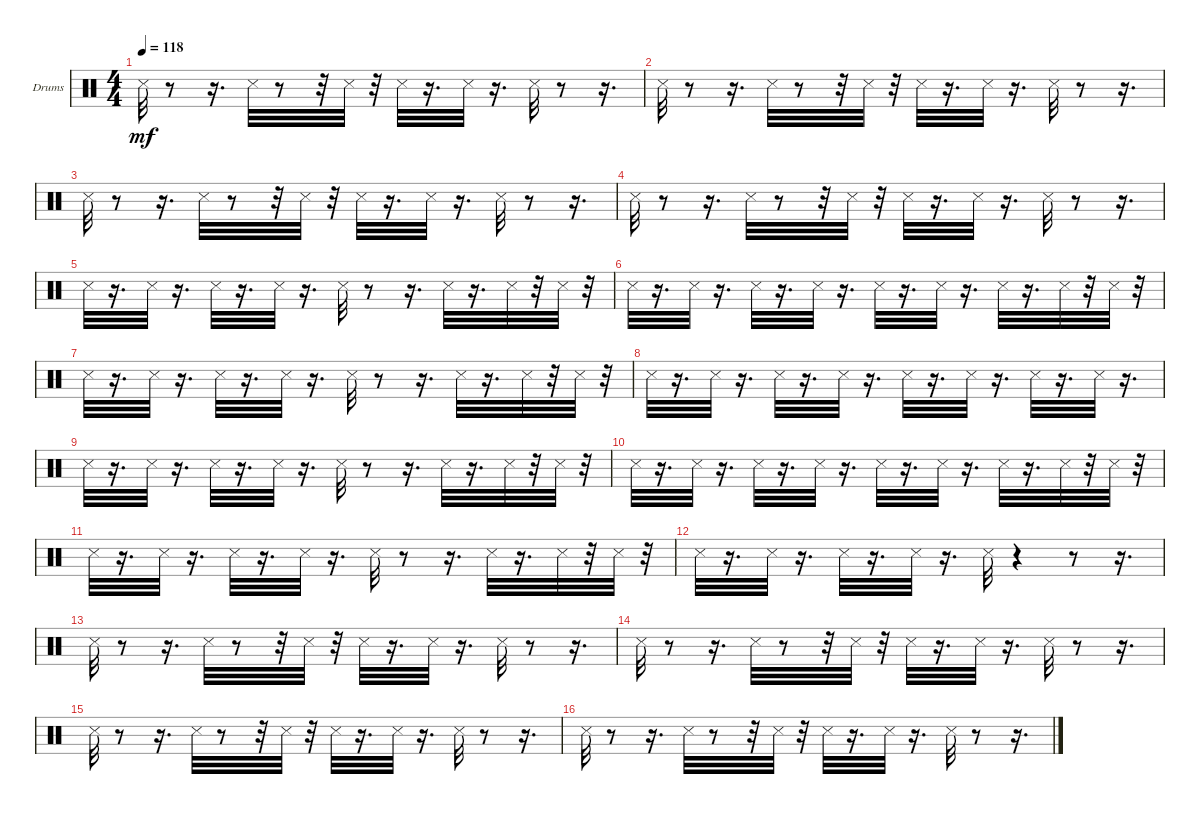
\bracketExtendMode groupsimilarinstruments
\firstSystemTrackNameOrientation horizontal
\otherSystemsTrackNameOrientation horizontal
\track ("Drums" "Drums") {instrument percussion}
\staff {score}
\articulation defaults
\ts (4 4)
\tempo 118
\clef neutral
\ks c "Snare (side stick) 3".32{dy mf}
r.8 r.16{d} "Snare (side stick) 3".32 r.8 r.32 "Snare (side stick) 3".32 r.32 "Snare (side stick) 3".32 r.16{d} "Snare (side stick) 3".32 r.16{d} "Snare (side stick) 3".32 r.8 r.16{d} |
"Snare (side stick) 3".32 r.8 r.16{d} "Snare (side stick) 3".32 r.8 r.32 "Snare (side stick) 3".32 r.32 "Snare (side stick) 3".32 r.16{d} "Snare (side stick) 3".32 r.16{d} "Snare (side stick) 3".32 r.8 r.16{d} |
"Snare (side stick) 3".32 r.8 r.16{d} "Snare (side stick) 3".32 r.8 r.32 "Snare (side stick) 3".32 r.32 "Snare (side stick) 3".32 r.16{d} "Snare (side stick) 3".32 r.16{d} "Snare (side stick) 3".32 r.8 r.16{d} |
"Snare (side stick) 3".32 r.8 r.16{d} "Snare (side stick) 3".32 r.8 r.32 "Snare (side stick) 3".32 r.32 "Snare (side stick) 3".32 r.16{d} "Snare (side stick) 3".32 r.16{d} "Snare (side stick) 3".32 r.8 r.16{d} |
"Snare (side stick) 3".32 r.16{d} "Snare (side stick) 3".32 r.16{d} "Snare (side stick) 3".32 r.16{d} "Snare (side stick) 3".32 r.16{d} "Snare (side stick) 3".32 r.8 r.16{d} "Snare (side stick) 3".32 r.16{d} "Snare (side stick) 3".32 r.32 "Snare (side stick) 3".32 r.32 |
"Snare (side stick) 3".32 r.16{d} "Snare (side stick) 3".32 r.16{d} "Snare (side stick) 3".32 r.16{d} "Snare (side stick) 3".32 r.16{d} "Snare (side stick) 3".32 r.16{d} "Snare (side stick) 3".32 r.16{d} "Snare (side stick) 3".32 r.16{d} "Snare (side stick) 3".32 r.32 "Snare (side stick) 3".32 r.32 |
"Snare (side stick) 3".32 r.16{d} "Snare (side stick) 3".32 r.16{d} "Snare (side stick) 3".32 r.16{d} "Snare (side stick) 3".32 r.16{d} "Snare (side stick) 3".32 r.8 r.16{d} "Snare (side stick) 3".32 r.16{d} "Snare (side stick) 3".32 r.32 "Snare (side stick) 3".32 r.32 |
"Snare (side stick) 3".32 r.16{d} "Snare (side stick) 3".32 r.16{d} "Snare (side stick) 3".32 r.16{d} "Snare (side stick) 3".32 r.16{d} "Snare (side stick) 3".32 r.16{d} "Snare (side stick) 3".32 r.16{d} "Snare (side stick) 3".32 r.16{d} "Snare (side stick) 3".32 r.16{d} |
"Snare (side stick) 3".32 r.16{d} "Snare (side stick) 3".32 r.16{d} "Snare (side stick) 3".32 r.16{d} "Snare (side stick) 3".32 r.16{d} "Snare (side stick) 3".32 r.8 r.16{d} "Snare (side stick) 3".32 r.16{d} "Snare (side stick) 3".32 r.32 "Snare (side stick) 3".32 r.32 |
"Snare (side stick) 3".32 r.16{d} "Snare (side stick) 3".32 r.16{d} "Snare (side stick) 3".32 r.16{d} "Snare (side stick) 3".32 r.16{d} "Snare (side stick) 3".32 r.16{d} "Snare (side stick) 3".32 r.16{d} "Snare (side stick) 3".32 r.16{d} "Snare (side stick) 3".32 r.32 "Snare (side stick) 3".32 r.32 |
"Snare (side stick) 3".32 r.16{d} "Snare (side stick) 3".32 r.16{d} "Snare (side stick) 3".32 r.16{d} "Snare (side stick) 3".32 r.16{d} "Snare (side stick) 3".32 r.8 r.16{d} "Snare (side stick) 3".32 r.16{d} "Snare (side stick) 3".32 r.32 "Snare (side stick) 3".32 r.32 |
"Snare (side stick) 3".32 r.16{d} "Snare (side stick) 3".32 r.16{d} "Snare (side stick) 3".32 r.16{d} "Snare (side stick) 3".32 r.16{d} "Snare (side stick) 3".32 r.4 r.8 r.16{d} |
"Snare (side stick) 3".32 r.8 r.16{d} "Snare (side stick) 3".32 r.8 r.32 "Snare (side stick) 3".32 r.32 "Snare (side stick) 3".32 r.16{d} "Snare (side stick) 3".32 r.16{d} "Snare (side stick) 3".32 r.8 r.16{d} |
"Snare (side stick) 3".32 r.8 r.16{d} "Snare (side stick) 3".32 r.8 r.32 "Snare (side stick) 3".32 r.32 "Snare (side stick) 3".32 r.16{d} "Snare (side stick) 3".32 r.16{d} "Snare (side stick) 3".32 r.8 r.16{d} |
"Snare (side stick) 3".32 r.8 r.16{d} "Snare (side stick) 3".32 r.8 r.32 "Snare (side stick) 3".32 r.32 "Snare (side stick) 3".32 r.16{d} "Snare (side stick) 3".32 r.16{d} "Snare (side stick) 3".32 r.8 r.16{d} |
"Snare (side stick) 3".32 r.8 r.16{d} "Snare (side stick) 3".32 r.8 r.32 "Snare (side stick) 3".32 r.32 "Snare (side stick) 3".32 r.16{d} "Snare (side stick) 3".32 r.16{d} "Snare (side stick) 3".32 r.8 r.16{d}
